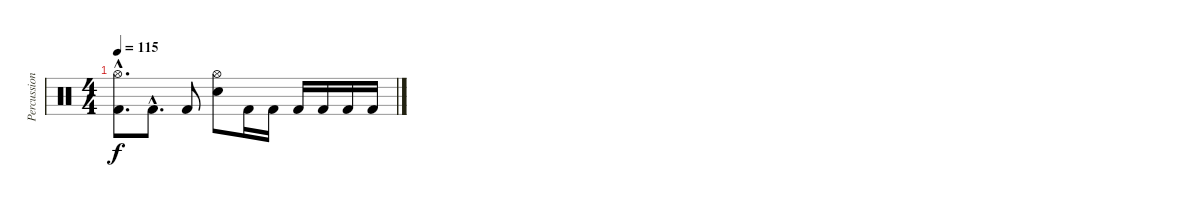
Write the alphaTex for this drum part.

\track ("Percussions" "Percussion") {instrument percussion}
\staff {score}
\articulation defaults
\ts (4 4)
\tempo 115
\clef neutral
\ks c
("Kick (hit) 2"{hac} "Hi-Hat (open)"{hac}).8{d dy f} "Kick (hit) 2"{hac}.8{d} "Kick (hit) 2".8 ("Electric Snare (hit)" "Hi-Hat (open)").8 "Kick (hit) 2".16 "Kick (hit) 2".16 "Kick (hit) 2".16 "Kick (hit) 2".16 "Kick (hit) 2".16 "Kick (hit) 2".16
